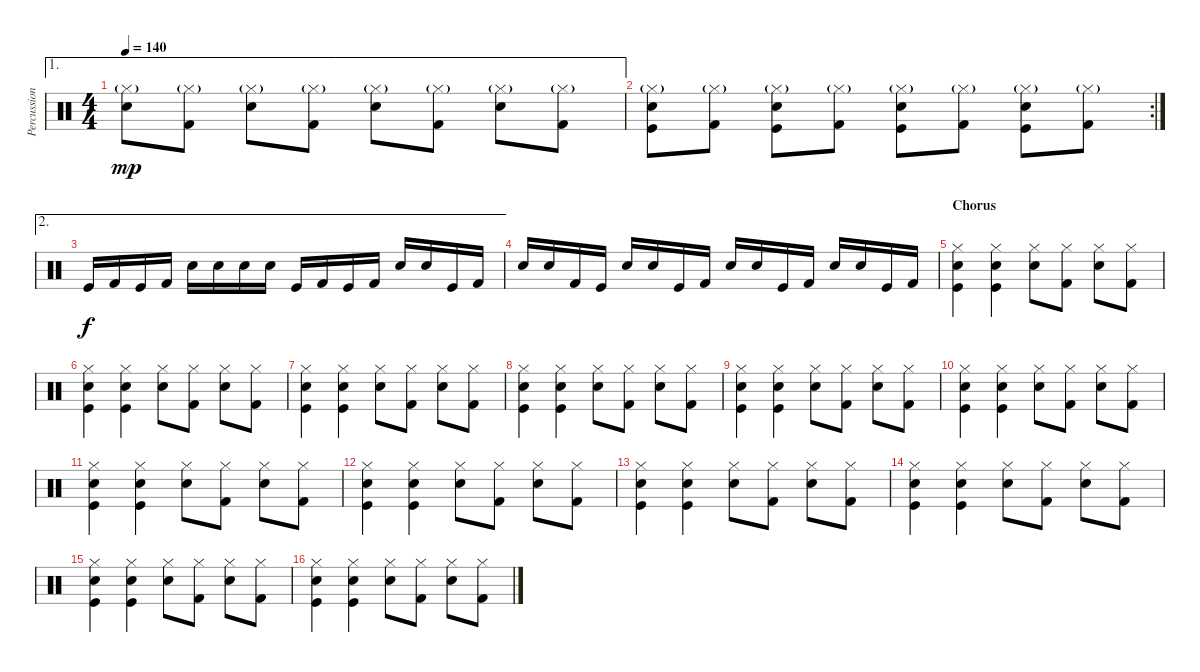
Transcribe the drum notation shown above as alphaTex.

\track ("Percussion" "Percussion") {instrument percussion}
\staff {score}
\articulation defaults
\ae 1
\ts (4 4)
\tempo 140
\clef neutral
\ks c
("Hi-Hat (closed)"{g} "Snare (hit) 2").8{dy mp} ("Hi-Hat (closed)"{g} "Kick (hit) 2").8 ("Hi-Hat (closed)"{g} "Snare (hit) 2").8 ("Hi-Hat (closed)"{g} "Kick (hit) 2").8 ("Hi-Hat (closed)"{g} "Snare (hit) 2").8 ("Hi-Hat (closed)"{g} "Kick (hit) 2").8 ("Hi-Hat (closed)"{g} "Snare (hit) 2").8 ("Hi-Hat (closed)"{g} "Kick (hit) 2").8 |
\rc 2
("Hi-Hat (closed)"{g} "Snare (hit) 2" "Kick (hit)").8 ("Hi-Hat (closed)"{g} "Kick (hit) 2").8 ("Hi-Hat (closed)"{g} "Snare (hit) 2" "Kick (hit)").8 ("Hi-Hat (closed)"{g} "Kick (hit) 2").8 ("Hi-Hat (closed)"{g} "Snare (hit) 2" "Kick (hit)").8 ("Hi-Hat (closed)"{g} "Kick (hit) 2").8 ("Hi-Hat (closed)"{g} "Snare (hit) 2" "Kick (hit)").8 ("Hi-Hat (closed)"{g} "Kick (hit) 2").8 |
\ae 2 "Kick (hit)".16{dy f} "Kick (hit) 2".16 "Kick (hit)".16 "Kick (hit) 2".16 "Snare (hit) 2".16 "Snare (hit) 2".16 "Snare (hit) 2".16 "Snare (hit) 2".16 "Kick (hit)".16 "Kick (hit) 2".16 "Kick (hit)".16 "Kick (hit) 2".16 "Snare (hit) 2".16 "Snare (hit) 2".16 "Kick (hit)".16 "Kick (hit) 2".16
|
"Snare (hit) 2".16 "Snare (hit) 2".16 "Kick (hit) 2".16 "Kick (hit)".16 "Snare (hit) 2".16 "Snare (hit) 2".16 "Kick (hit)".16 "Kick (hit) 2".16 "Snare (hit) 2".16 "Snare (hit) 2".16 "Kick (hit)".16 "Kick (hit) 2".16 "Snare (hit) 2".16 "Snare (hit) 2".16 "Kick (hit)".16 "Kick (hit) 2".16 |
\section ("" "Chorus")
("Hi-Hat (closed)" "Snare (hit) 2" "Kick (hit)").4 ("Hi-Hat (closed)" "Snare (hit) 2" "Kick (hit)").4 ("Hi-Hat (closed)" "Snare (hit) 2").8 ("Hi-Hat (closed)" "Kick (hit) 2").8 ("Hi-Hat (closed)" "Snare (hit) 2").8 ("Hi-Hat (closed)" "Kick (hit) 2").8 |
("Hi-Hat (closed)" "Snare (hit) 2" "Kick (hit)").4 ("Hi-Hat (closed)" "Snare (hit) 2" "Kick (hit)").4 ("Hi-Hat (closed)" "Snare (hit) 2").8 ("Hi-Hat (closed)" "Kick (hit) 2").8 ("Hi-Hat (closed)" "Snare (hit) 2").8 ("Hi-Hat (closed)" "Kick (hit) 2").8 |
("Hi-Hat (closed)" "Snare (hit) 2" "Kick (hit)").4 ("Hi-Hat (closed)" "Snare (hit) 2" "Kick (hit)").4 ("Hi-Hat (closed)" "Snare (hit) 2").8 ("Hi-Hat (closed)" "Kick (hit) 2").8 ("Hi-Hat (closed)" "Snare (hit) 2").8 ("Hi-Hat (closed)" "Kick (hit) 2").8 |
("Hi-Hat (closed)" "Snare (hit) 2" "Kick (hit)").4 ("Hi-Hat (closed)" "Snare (hit) 2" "Kick (hit)").4 ("Hi-Hat (closed)" "Snare (hit) 2").8 ("Hi-Hat (closed)" "Kick (hit) 2").8 ("Hi-Hat (closed)" "Snare (hit) 2").8 ("Hi-Hat (closed)" "Kick (hit) 2").8 |
("Hi-Hat (closed)" "Snare (hit) 2" "Kick (hit)").4 ("Hi-Hat (closed)" "Snare (hit) 2" "Kick (hit)").4 ("Hi-Hat (closed)" "Snare (hit) 2").8 ("Hi-Hat (closed)" "Kick (hit) 2").8 ("Hi-Hat (closed)" "Snare (hit) 2").8 ("Hi-Hat (closed)" "Kick (hit) 2").8 |
("Hi-Hat (closed)" "Snare (hit) 2" "Kick (hit)").4 ("Hi-Hat (closed)" "Snare (hit) 2" "Kick (hit)").4 ("Hi-Hat (closed)" "Snare (hit) 2").8 ("Hi-Hat (closed)" "Kick (hit) 2").8 ("Hi-Hat (closed)" "Snare (hit) 2").8 ("Hi-Hat (closed)" "Kick (hit) 2").8 |
("Hi-Hat (closed)" "Snare (hit) 2" "Kick (hit)").4 ("Hi-Hat (closed)" "Snare (hit) 2" "Kick (hit)").4 ("Hi-Hat (closed)" "Snare (hit) 2").8 ("Hi-Hat (closed)" "Kick (hit) 2").8 ("Hi-Hat (closed)" "Snare (hit) 2").8 ("Hi-Hat (closed)" "Kick (hit) 2").8 |
("Hi-Hat (closed)" "Snare (hit) 2" "Kick (hit)").4 ("Hi-Hat (closed)" "Snare (hit) 2" "Kick (hit)").4 ("Hi-Hat (closed)" "Snare (hit) 2").8 ("Hi-Hat (closed)" "Kick (hit) 2").8 ("Hi-Hat (closed)" "Snare (hit) 2").8 ("Hi-Hat (closed)" "Kick (hit) 2").8 |
("Hi-Hat (closed)" "Snare (hit) 2" "Kick (hit)").4 ("Hi-Hat (closed)" "Snare (hit) 2" "Kick (hit)").4 ("Hi-Hat (closed)" "Snare (hit) 2").8 ("Hi-Hat (closed)" "Kick (hit) 2").8 ("Hi-Hat (closed)" "Snare (hit) 2").8 ("Hi-Hat (closed)" "Kick (hit) 2").8 |
("Hi-Hat (closed)" "Snare (hit) 2" "Kick (hit)").4 ("Hi-Hat (closed)" "Snare (hit) 2" "Kick (hit)").4 ("Hi-Hat (closed)" "Snare (hit) 2").8 ("Hi-Hat (closed)" "Kick (hit) 2").8 ("Hi-Hat (closed)" "Snare (hit) 2").8 ("Hi-Hat (closed)" "Kick (hit) 2").8 |
("Hi-Hat (closed)" "Snare (hit) 2" "Kick (hit)").4 ("Hi-Hat (closed)" "Snare (hit) 2" "Kick (hit)").4 ("Hi-Hat (closed)" "Snare (hit) 2").8 ("Hi-Hat (closed)" "Kick (hit) 2").8 ("Hi-Hat (closed)" "Snare (hit) 2").8 ("Hi-Hat (closed)" "Kick (hit) 2").8 |
("Hi-Hat (closed)" "Snare (hit) 2" "Kick (hit)").4 ("Hi-Hat (closed)" "Snare (hit) 2" "Kick (hit)").4 ("Hi-Hat (closed)" "Snare (hit) 2").8 ("Hi-Hat (closed)" "Kick (hit) 2").8 ("Hi-Hat (closed)" "Snare (hit) 2").8 ("Hi-Hat (closed)" "Kick (hit) 2").8
